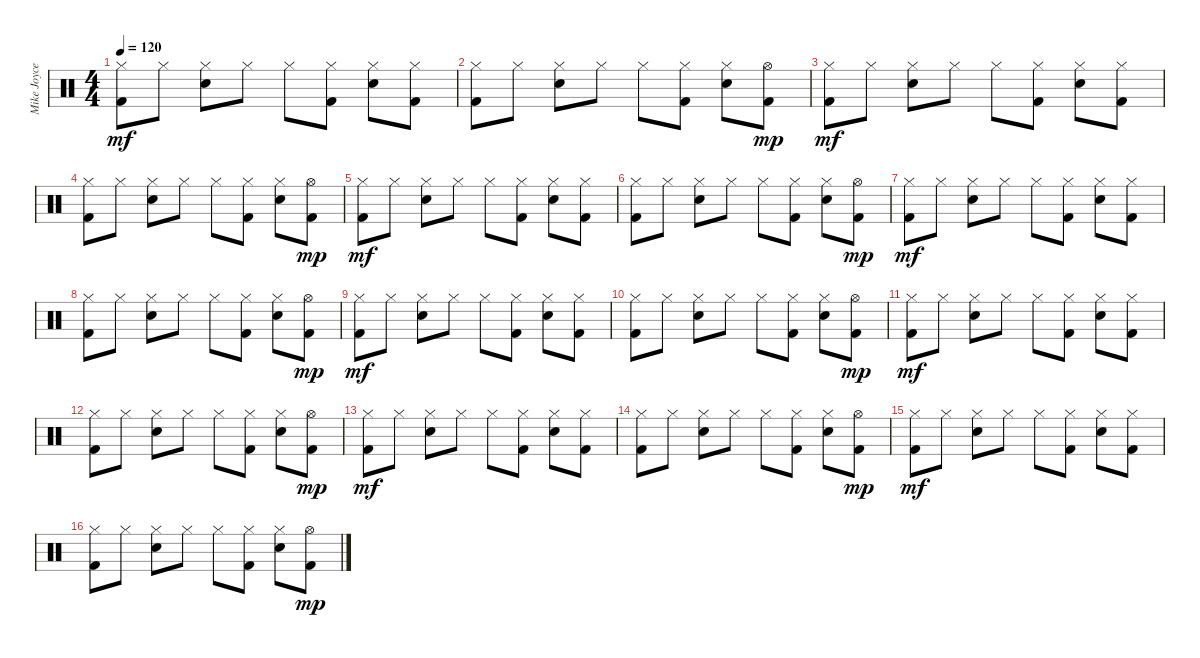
\track ("Mike Joyce" "Mike Joyce") {instrument percussion}
\staff {score}
\articulation defaults
\ts (4 4)
\tempo 120
\clef neutral
\ks c
("Hi-Hat (closed)" "Kick (hit) 2").8{dy mf} "Hi-Hat (closed)".8 ("Hi-Hat (closed)" "Electric Snare (hit)").8 "Hi-Hat (closed)".8 "Hi-Hat (closed)".8 ("Hi-Hat (closed)" "Kick (hit) 2").8 ("Hi-Hat (closed)" "Electric Snare (hit)").8 ("Hi-Hat (closed)" "Kick (hit) 2").8 |
("Hi-Hat (closed)" "Kick (hit) 2").8 "Hi-Hat (closed)".8 ("Hi-Hat (closed)" "Electric Snare (hit)").8 "Hi-Hat (closed)".8 "Hi-Hat (closed)".8 ("Hi-Hat (closed)" "Kick (hit) 2").8 ("Hi-Hat (closed)" "Electric Snare (hit)").8 ("Hi-Hat (open)" "Kick (hit) 2").8{dy mp} |
("Hi-Hat (closed)" "Kick (hit) 2").8{dy mf} "Hi-Hat (closed)".8 ("Hi-Hat (closed)" "Electric Snare (hit)").8 "Hi-Hat (closed)".8 "Hi-Hat (closed)".8 ("Hi-Hat (closed)" "Kick (hit) 2").8 ("Hi-Hat (closed)" "Electric Snare (hit)").8 ("Hi-Hat (closed)" "Kick (hit) 2").8 |
("Hi-Hat (closed)" "Kick (hit) 2").8 "Hi-Hat (closed)".8 ("Hi-Hat (closed)" "Electric Snare (hit)").8 "Hi-Hat (closed)".8 "Hi-Hat (closed)".8 ("Hi-Hat (closed)" "Kick (hit) 2").8 ("Hi-Hat (closed)" "Electric Snare (hit)").8 ("Hi-Hat (open)" "Kick (hit) 2").8{dy mp} |
("Hi-Hat (closed)" "Kick (hit) 2").8{dy mf} "Hi-Hat (closed)".8 ("Hi-Hat (closed)" "Electric Snare (hit)").8 "Hi-Hat (closed)".8 "Hi-Hat (closed)".8 ("Hi-Hat (closed)" "Kick (hit) 2").8 ("Hi-Hat (closed)" "Electric Snare (hit)").8 ("Hi-Hat (closed)" "Kick (hit) 2").8 |
("Hi-Hat (closed)" "Kick (hit) 2").8 "Hi-Hat (closed)".8 ("Hi-Hat (closed)" "Electric Snare (hit)").8 "Hi-Hat (closed)".8 "Hi-Hat (closed)".8 ("Hi-Hat (closed)" "Kick (hit) 2").8 ("Hi-Hat (closed)" "Electric Snare (hit)").8 ("Hi-Hat (open)" "Kick (hit) 2").8{dy mp} |
("Hi-Hat (closed)" "Kick (hit) 2").8{dy mf} "Hi-Hat (closed)".8 ("Hi-Hat (closed)" "Electric Snare (hit)").8 "Hi-Hat (closed)".8 "Hi-Hat (closed)".8 ("Hi-Hat (closed)" "Kick (hit) 2").8 ("Hi-Hat (closed)" "Electric Snare (hit)").8 ("Hi-Hat (closed)" "Kick (hit) 2").8 |
("Hi-Hat (closed)" "Kick (hit) 2").8 "Hi-Hat (closed)".8 ("Hi-Hat (closed)" "Electric Snare (hit)").8 "Hi-Hat (closed)".8 "Hi-Hat (closed)".8 ("Hi-Hat (closed)" "Kick (hit) 2").8 ("Hi-Hat (closed)" "Electric Snare (hit)").8 ("Hi-Hat (open)" "Kick (hit) 2").8{dy mp} |
("Hi-Hat (closed)" "Kick (hit) 2").8{dy mf} "Hi-Hat (closed)".8 ("Hi-Hat (closed)" "Electric Snare (hit)").8 "Hi-Hat (closed)".8 "Hi-Hat (closed)".8 ("Hi-Hat (closed)" "Kick (hit) 2").8 ("Hi-Hat (closed)" "Electric Snare (hit)").8 ("Hi-Hat (closed)" "Kick (hit) 2").8 |
("Hi-Hat (closed)" "Kick (hit) 2").8 "Hi-Hat (closed)".8 ("Hi-Hat (closed)" "Electric Snare (hit)").8 "Hi-Hat (closed)".8 "Hi-Hat (closed)".8 ("Hi-Hat (closed)" "Kick (hit) 2").8 ("Hi-Hat (closed)" "Electric Snare (hit)").8 ("Hi-Hat (open)" "Kick (hit) 2").8{dy mp} |
("Hi-Hat (closed)" "Kick (hit) 2").8{dy mf} "Hi-Hat (closed)".8 ("Hi-Hat (closed)" "Electric Snare (hit)").8 "Hi-Hat (closed)".8 "Hi-Hat (closed)".8 ("Hi-Hat (closed)" "Kick (hit) 2").8 ("Hi-Hat (closed)" "Electric Snare (hit)").8 ("Hi-Hat (closed)" "Kick (hit) 2").8 |
("Hi-Hat (closed)" "Kick (hit) 2").8 "Hi-Hat (closed)".8 ("Hi-Hat (closed)" "Electric Snare (hit)").8 "Hi-Hat (closed)".8 "Hi-Hat (closed)".8 ("Hi-Hat (closed)" "Kick (hit) 2").8 ("Hi-Hat (closed)" "Electric Snare (hit)").8 ("Hi-Hat (open)" "Kick (hit) 2").8{dy mp} |
("Hi-Hat (closed)" "Kick (hit) 2").8{dy mf} "Hi-Hat (closed)".8 ("Hi-Hat (closed)" "Electric Snare (hit)").8 "Hi-Hat (closed)".8 "Hi-Hat (closed)".8 ("Hi-Hat (closed)" "Kick (hit) 2").8 ("Hi-Hat (closed)" "Electric Snare (hit)").8 ("Hi-Hat (closed)" "Kick (hit) 2").8 |
("Hi-Hat (closed)" "Kick (hit) 2").8 "Hi-Hat (closed)".8 ("Hi-Hat (closed)" "Electric Snare (hit)").8 "Hi-Hat (closed)".8 "Hi-Hat (closed)".8 ("Hi-Hat (closed)" "Kick (hit) 2").8 ("Hi-Hat (closed)" "Electric Snare (hit)").8 ("Hi-Hat (open)" "Kick (hit) 2").8{dy mp} |
("Hi-Hat (closed)" "Kick (hit) 2").8{dy mf} "Hi-Hat (closed)".8 ("Hi-Hat (closed)" "Electric Snare (hit)").8 "Hi-Hat (closed)".8 "Hi-Hat (closed)".8 ("Hi-Hat (closed)" "Kick (hit) 2").8 ("Hi-Hat (closed)" "Electric Snare (hit)").8 ("Hi-Hat (closed)" "Kick (hit) 2").8 |
("Hi-Hat (closed)" "Kick (hit) 2").8 "Hi-Hat (closed)".8 ("Hi-Hat (closed)" "Electric Snare (hit)").8 "Hi-Hat (closed)".8 "Hi-Hat (closed)".8 ("Hi-Hat (closed)" "Kick (hit) 2").8 ("Hi-Hat (closed)" "Electric Snare (hit)").8 ("Hi-Hat (open)" "Kick (hit) 2").8{dy mp}
